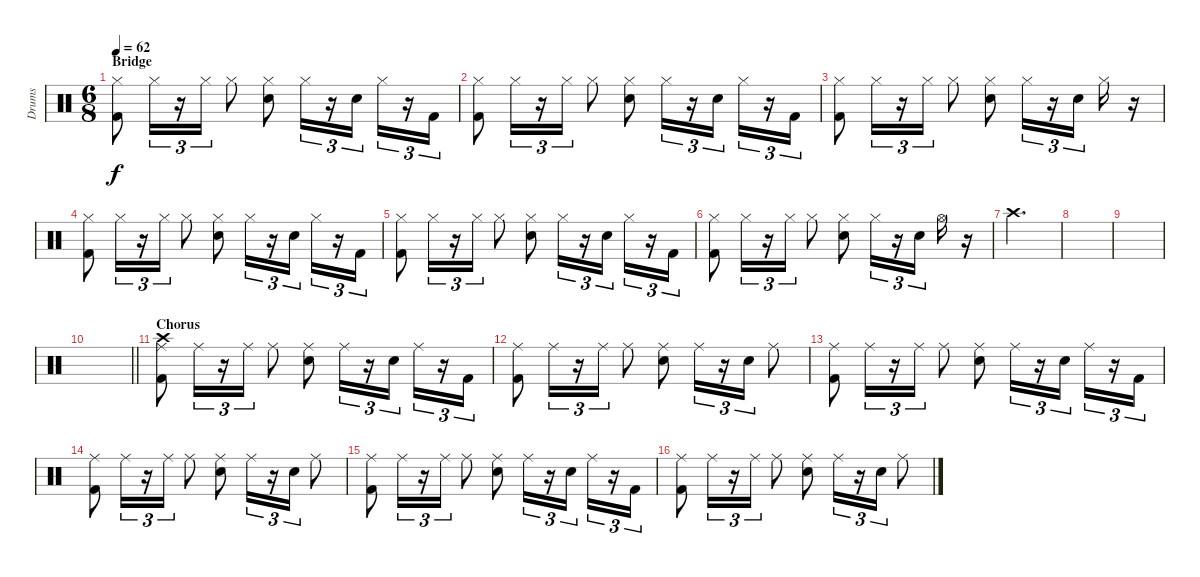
\track ("Drums" "Drums") {instrument percussion}
\staff {score}
\articulation defaults
\ts (6 8)
\section ("" "Bridge")
\tempo 62
\clef neutral
\ks c
("Hi-Hat (closed)" "Kick (hit) 2").8{dy f} "Hi-Hat (closed)".16{tu (3 2)} r.16{tu (3 2)} "Hi-Hat (closed)".16{tu (3 2)} "Hi-Hat (closed)".8 ("Hi-Hat (closed)" "Electric Snare (hit)").8 "Hi-Hat (closed)".16{tu (3 2)} r.16{tu (3 2)} "Electric Snare (hit)".16{tu (3 2)} "Hi-Hat (closed)".16{tu (3 2)} r.16{tu (3 2)} "Kick (hit) 2".16{tu (3 2)} |
("Hi-Hat (closed)" "Kick (hit) 2").8 "Hi-Hat (closed)".16{tu (3 2)} r.16{tu (3 2)} "Hi-Hat (closed)".16{tu (3 2)} "Hi-Hat (closed)".8 ("Hi-Hat (closed)" "Electric Snare (hit)").8 "Hi-Hat (closed)".16{tu (3 2)} r.16{tu (3 2)} "Electric Snare (hit)".16{tu (3 2)} "Hi-Hat (closed)".16{tu (3 2)} r.16{tu (3 2)} "Kick (hit) 2".16{tu (3 2)} |
("Hi-Hat (closed)" "Kick (hit) 2").8 "Hi-Hat (closed)".16{tu (3 2)} r.16{tu (3 2)} "Hi-Hat (closed)".16{tu (3 2)} "Hi-Hat (closed)".8 ("Hi-Hat (closed)" "Electric Snare (hit)").8 "Hi-Hat (closed)".16{tu (3 2)} r.16{tu (3 2)} "Electric Snare (hit)".16{tu (3 2)} "Hi-Hat (closed)".16 r.16 |
("Hi-Hat (closed)" "Kick (hit) 2").8 "Hi-Hat (closed)".16{tu (3 2)} r.16{tu (3 2)} "Hi-Hat (closed)".16{tu (3 2)} "Hi-Hat (closed)".8 ("Hi-Hat (closed)" "Electric Snare (hit)").8 "Hi-Hat (closed)".16{tu (3 2)} r.16{tu (3 2)} "Electric Snare (hit)".16{tu (3 2)} "Hi-Hat (closed)".16{tu (3 2)} r.16{tu (3 2)} "Kick (hit) 2".16{tu (3 2)} |
("Hi-Hat (closed)" "Kick (hit) 2").8 "Hi-Hat (closed)".16{tu (3 2)} r.16{tu (3 2)} "Hi-Hat (closed)".16{tu (3 2)} "Hi-Hat (closed)".8 ("Hi-Hat (closed)" "Electric Snare (hit)").8 "Hi-Hat (closed)".16{tu (3 2)} r.16{tu (3 2)} "Electric Snare (hit)".16{tu (3 2)} "Hi-Hat (closed)".16{tu (3 2)} r.16{tu (3 2)} "Kick (hit) 2".16{tu (3 2)} |
("Hi-Hat (closed)" "Kick (hit) 2").8 "Hi-Hat (closed)".16{tu (3 2)} r.16{tu (3 2)} "Hi-Hat (closed)".16{tu (3 2)} "Hi-Hat (closed)".8 ("Hi-Hat (closed)" "Electric Snare (hit)").8 "Hi-Hat (closed)".16{tu (3 2)} r.16{tu (3 2)} "Electric Snare (hit)".16{tu (3 2)} "Hi-Hat (open)".16 r.16 |
"Crash high (hit)".2{d} |
|
|
\barLineRight lightlight
|
\section ("" "Chorus")
("Ride (middle)" "Crash high (hit)" "Kick (hit) 2").8 "Ride (middle)".16{tu (3 2)} r.16{tu (3 2)} "Ride (middle)".16{tu (3 2)} "Ride (middle)".8 ("Ride (middle)" "Electric Snare (hit)").8 "Ride (middle)".16{tu (3 2)} r.16{tu (3 2)} "Electric Snare (hit)".16{tu (3 2)} "Ride (middle)".16{tu (3 2)} r.16{tu (3 2)} "Kick (hit) 2".16{tu (3 2)} |
("Ride (middle)" "Kick (hit) 2").8 "Ride (middle)".16{tu (3 2)} r.16{tu (3 2)} "Ride (middle)".16{tu (3 2)} "Ride (middle)".8 ("Ride (middle)" "Electric Snare (hit)").8 "Ride (middle)".16{tu (3 2)} r.16{tu (3 2)} "Electric Snare (hit)".16{tu (3 2)} "Ride (middle)".8 |
("Ride (middle)" "Kick (hit) 2").8 "Ride (middle)".16{tu (3 2)} r.16{tu (3 2)} "Ride (middle)".16{tu (3 2)} "Ride (middle)".8 ("Ride (middle)" "Electric Snare (hit)").8 "Ride (middle)".16{tu (3 2)} r.16{tu (3 2)} "Electric Snare (hit)".16{tu (3 2)} "Ride (middle)".16{tu (3 2)} r.16{tu (3 2)} "Kick (hit) 2".16{tu (3 2)} |
("Ride (middle)" "Kick (hit) 2").8 "Ride (middle)".16{tu (3 2)} r.16{tu (3 2)} "Ride (middle)".16{tu (3 2)} "Ride (middle)".8 ("Ride (middle)" "Electric Snare (hit)").8 "Ride (middle)".16{tu (3 2)} r.16{tu (3 2)} "Electric Snare (hit)".16{tu (3 2)} "Ride (middle)".8 |
("Ride (middle)" "Kick (hit) 2").8 "Ride (middle)".16{tu (3 2)} r.16{tu (3 2)} "Ride (middle)".16{tu (3 2)} "Ride (middle)".8 ("Ride (middle)" "Electric Snare (hit)").8 "Ride (middle)".16{tu (3 2)} r.16{tu (3 2)} "Electric Snare (hit)".16{tu (3 2)} "Ride (middle)".16{tu (3 2)} r.16{tu (3 2)} "Kick (hit) 2".16{tu (3 2)} |
("Ride (middle)" "Kick (hit) 2").8 "Ride (middle)".16{tu (3 2)} r.16{tu (3 2)} "Ride (middle)".16{tu (3 2)} "Ride (middle)".8 ("Ride (middle)" "Electric Snare (hit)").8 "Ride (middle)".16{tu (3 2)} r.16{tu (3 2)} "Electric Snare (hit)".16{tu (3 2)} "Ride (middle)".8
